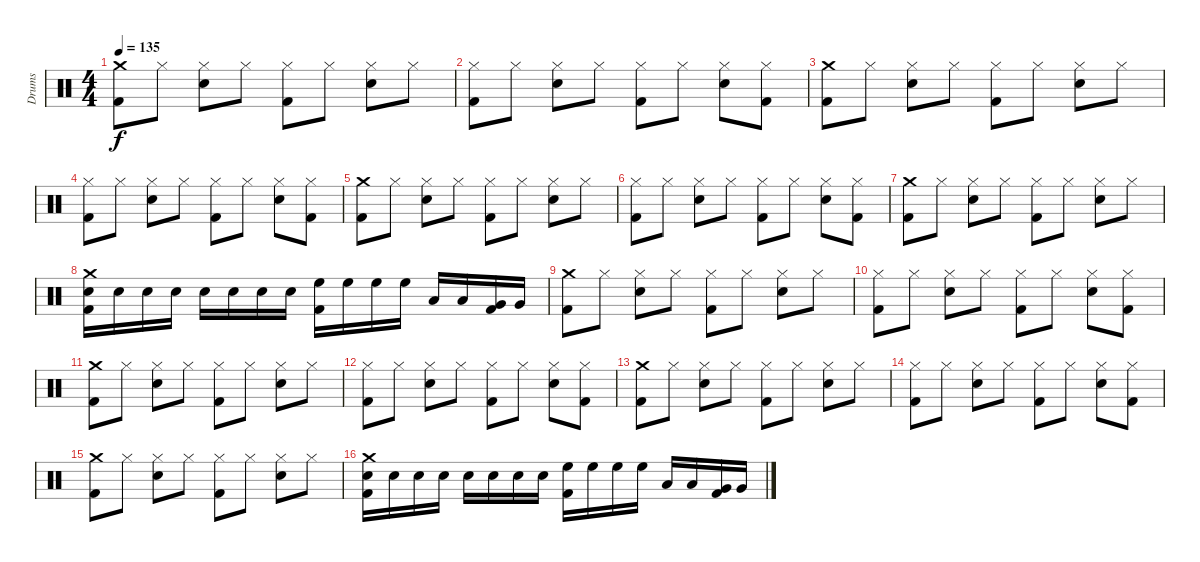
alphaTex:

\track ("Drums" "Drums") {instrument percussion}
\staff {score}
\articulation defaults
\ts (4 4)
\tempo 135
\clef neutral
\ks c
("Crash medium (hit)" "Kick (hit) 2").8{dy f} "Hi-Hat (closed)".8 ("Hi-Hat (closed)" "Snare (hit) 2").8 "Hi-Hat (closed)".8 ("Hi-Hat (closed)" "Kick (hit) 2").8 "Hi-Hat (closed)".8 ("Hi-Hat (closed)" "Snare (hit) 2").8 "Hi-Hat (closed)".8 |
("Hi-Hat (closed)" "Kick (hit) 2").8 "Hi-Hat (closed)".8 ("Hi-Hat (closed)" "Snare (hit) 2").8 "Hi-Hat (closed)".8 ("Hi-Hat (closed)" "Kick (hit) 2").8 "Hi-Hat (closed)".8 ("Hi-Hat (closed)" "Snare (hit) 2").8 ("Hi-Hat (closed)" "Kick (hit) 2").8 |
("Crash medium (hit)" "Kick (hit) 2").8 "Hi-Hat (closed)".8 ("Hi-Hat (closed)" "Snare (hit) 2").8 "Hi-Hat (closed)".8 ("Hi-Hat (closed)" "Kick (hit) 2").8 "Hi-Hat (closed)".8 ("Hi-Hat (closed)" "Snare (hit) 2").8 "Hi-Hat (closed)".8 |
("Hi-Hat (closed)" "Kick (hit) 2").8 "Hi-Hat (closed)".8 ("Hi-Hat (closed)" "Snare (hit) 2").8 "Hi-Hat (closed)".8 ("Hi-Hat (closed)" "Kick (hit) 2").8 "Hi-Hat (closed)".8 ("Hi-Hat (closed)" "Snare (hit) 2").8 ("Hi-Hat (closed)" "Kick (hit) 2").8 |
("Crash medium (hit)" "Kick (hit) 2").8 "Hi-Hat (closed)".8 ("Hi-Hat (closed)" "Snare (hit) 2").8 "Hi-Hat (closed)".8 ("Hi-Hat (closed)" "Kick (hit) 2").8 "Hi-Hat (closed)".8 ("Hi-Hat (closed)" "Snare (hit) 2").8 "Hi-Hat (closed)".8 |
("Hi-Hat (closed)" "Kick (hit) 2").8 "Hi-Hat (closed)".8 ("Hi-Hat (closed)" "Snare (hit) 2").8 "Hi-Hat (closed)".8 ("Hi-Hat (closed)" "Kick (hit) 2").8 "Hi-Hat (closed)".8 ("Hi-Hat (closed)" "Snare (hit) 2").8 ("Hi-Hat (closed)" "Kick (hit) 2").8 |
("Crash medium (hit)" "Kick (hit) 2").8 "Hi-Hat (closed)".8 ("Hi-Hat (closed)" "Snare (hit) 2").8 "Hi-Hat (closed)".8 ("Hi-Hat (closed)" "Kick (hit) 2").8 "Hi-Hat (closed)".8 ("Hi-Hat (closed)" "Snare (hit) 2").8 "Hi-Hat (closed)".8 |
("Crash medium (hit)" "Snare (hit) 2" "Kick (hit) 2").16 "Snare (hit) 2".16 "Snare (hit) 2".16 "Snare (hit) 2".16 "Snare (hit) 2".16 "Snare (hit) 2".16 "Snare (hit) 2".16 "Snare (hit) 2".16 ("High Floor Tom (hit)" "Kick (hit) 2").16 "High Floor Tom (hit)".16 "High Floor Tom (hit)".16 "High Floor Tom (hit)".16 "Low Tom (hit)".16 "Low Tom (hit)".16 ("Very Low Tom (hit)" "Kick (hit) 2").16 "Very Low Tom (hit)".16 |
("Crash medium (hit)" "Kick (hit) 2").8 "Hi-Hat (closed)".8 ("Hi-Hat (closed)" "Snare (hit) 2").8 "Hi-Hat (closed)".8 ("Hi-Hat (closed)" "Kick (hit) 2").8 "Hi-Hat (closed)".8 ("Hi-Hat (closed)" "Snare (hit) 2").8 "Hi-Hat (closed)".8 |
("Hi-Hat (closed)" "Kick (hit) 2").8 "Hi-Hat (closed)".8 ("Hi-Hat (closed)" "Snare (hit) 2").8 "Hi-Hat (closed)".8 ("Hi-Hat (closed)" "Kick (hit) 2").8 "Hi-Hat (closed)".8 ("Hi-Hat (closed)" "Snare (hit) 2").8 ("Hi-Hat (closed)" "Kick (hit) 2").8 |
("Crash medium (hit)" "Kick (hit) 2").8 "Hi-Hat (closed)".8 ("Hi-Hat (closed)" "Snare (hit) 2").8 "Hi-Hat (closed)".8 ("Hi-Hat (closed)" "Kick (hit) 2").8 "Hi-Hat (closed)".8 ("Hi-Hat (closed)" "Snare (hit) 2").8 "Hi-Hat (closed)".8 |
("Hi-Hat (closed)" "Kick (hit) 2").8 "Hi-Hat (closed)".8 ("Hi-Hat (closed)" "Snare (hit) 2").8 "Hi-Hat (closed)".8 ("Hi-Hat (closed)" "Kick (hit) 2").8 "Hi-Hat (closed)".8 ("Hi-Hat (closed)" "Snare (hit) 2").8 ("Hi-Hat (closed)" "Kick (hit) 2").8 |
("Crash medium (hit)" "Kick (hit) 2").8 "Hi-Hat (closed)".8 ("Hi-Hat (closed)" "Snare (hit) 2").8 "Hi-Hat (closed)".8 ("Hi-Hat (closed)" "Kick (hit) 2").8 "Hi-Hat (closed)".8 ("Hi-Hat (closed)" "Snare (hit) 2").8 "Hi-Hat (closed)".8 |
("Hi-Hat (closed)" "Kick (hit) 2").8 "Hi-Hat (closed)".8 ("Hi-Hat (closed)" "Snare (hit) 2").8 "Hi-Hat (closed)".8 ("Hi-Hat (closed)" "Kick (hit) 2").8 "Hi-Hat (closed)".8 ("Hi-Hat (closed)" "Snare (hit) 2").8 ("Hi-Hat (closed)" "Kick (hit) 2").8 |
("Crash medium (hit)" "Kick (hit) 2").8 "Hi-Hat (closed)".8 ("Hi-Hat (closed)" "Snare (hit) 2").8 "Hi-Hat (closed)".8 ("Hi-Hat (closed)" "Kick (hit) 2").8 "Hi-Hat (closed)".8 ("Hi-Hat (closed)" "Snare (hit) 2").8 "Hi-Hat (closed)".8 |
("Crash medium (hit)" "Snare (hit) 2" "Kick (hit) 2").16 "Snare (hit) 2".16 "Snare (hit) 2".16 "Snare (hit) 2".16 "Snare (hit) 2".16 "Snare (hit) 2".16 "Snare (hit) 2".16 "Snare (hit) 2".16 ("High Floor Tom (hit)" "Kick (hit) 2").16 "High Floor Tom (hit)".16 "High Floor Tom (hit)".16 "High Floor Tom (hit)".16 "Low Tom (hit)".16 "Low Tom (hit)".16 ("Very Low Tom (hit)" "Kick (hit) 2").16 "Very Low Tom (hit)".16
